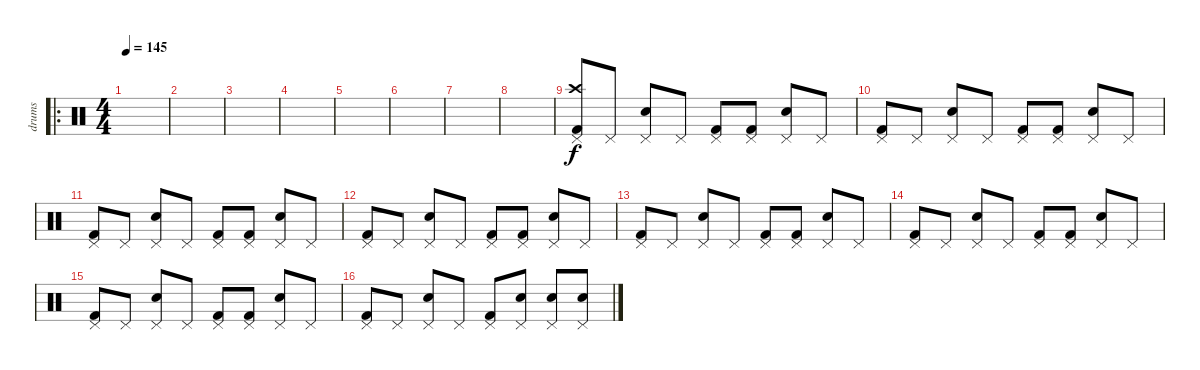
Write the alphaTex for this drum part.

\track ("drums" "drums") {instrument percussion}
\staff {score}
\articulation defaults
\ro
\ts (4 4)
\tempo 145
\clef neutral
\ks c
|
|
|
|
|
|
|
|
("Kick (hit) 2" "Crash high (hit)" "Pedal Hi-Hat (hit)").8 "Pedal Hi-Hat (hit)".8 ("Snare (hit) 2" "Pedal Hi-Hat (hit)").8 "Pedal Hi-Hat (hit)".8 ("Kick (hit) 2" "Pedal Hi-Hat (hit)").8 ("Kick (hit) 2" "Pedal Hi-Hat (hit)").8 ("Snare (hit) 2" "Pedal Hi-Hat (hit)").8 "Pedal Hi-Hat (hit)".8 |
("Kick (hit) 2" "Pedal Hi-Hat (hit)").8 "Pedal Hi-Hat (hit)".8 ("Snare (hit) 2" "Pedal Hi-Hat (hit)").8 "Pedal Hi-Hat (hit)".8 ("Kick (hit) 2" "Pedal Hi-Hat (hit)").8 ("Kick (hit) 2" "Pedal Hi-Hat (hit)").8 ("Snare (hit) 2" "Pedal Hi-Hat (hit)").8 "Pedal Hi-Hat (hit)".8 |
("Kick (hit) 2" "Pedal Hi-Hat (hit)").8 "Pedal Hi-Hat (hit)".8 ("Snare (hit) 2" "Pedal Hi-Hat (hit)").8 "Pedal Hi-Hat (hit)".8 ("Kick (hit) 2" "Pedal Hi-Hat (hit)").8 ("Kick (hit) 2" "Pedal Hi-Hat (hit)").8 ("Snare (hit) 2" "Pedal Hi-Hat (hit)").8 "Pedal Hi-Hat (hit)".8 |
("Kick (hit) 2" "Pedal Hi-Hat (hit)").8 "Pedal Hi-Hat (hit)".8 ("Snare (hit) 2" "Pedal Hi-Hat (hit)").8 "Pedal Hi-Hat (hit)".8 ("Kick (hit) 2" "Pedal Hi-Hat (hit)").8 ("Kick (hit) 2" "Pedal Hi-Hat (hit)").8 ("Snare (hit) 2" "Pedal Hi-Hat (hit)").8 "Pedal Hi-Hat (hit)".8 |
("Kick (hit) 2" "Pedal Hi-Hat (hit)").8 "Pedal Hi-Hat (hit)".8 ("Snare (hit) 2" "Pedal Hi-Hat (hit)").8 "Pedal Hi-Hat (hit)".8 ("Kick (hit) 2" "Pedal Hi-Hat (hit)").8 ("Kick (hit) 2" "Pedal Hi-Hat (hit)").8 ("Snare (hit) 2" "Pedal Hi-Hat (hit)").8 "Pedal Hi-Hat (hit)".8 |
("Kick (hit) 2" "Pedal Hi-Hat (hit)").8 "Pedal Hi-Hat (hit)".8 ("Snare (hit) 2" "Pedal Hi-Hat (hit)").8 "Pedal Hi-Hat (hit)".8 ("Kick (hit) 2" "Pedal Hi-Hat (hit)").8 ("Kick (hit) 2" "Pedal Hi-Hat (hit)").8 ("Snare (hit) 2" "Pedal Hi-Hat (hit)").8 "Pedal Hi-Hat (hit)".8 |
("Kick (hit) 2" "Pedal Hi-Hat (hit)").8 "Pedal Hi-Hat (hit)".8 ("Snare (hit) 2" "Pedal Hi-Hat (hit)").8 "Pedal Hi-Hat (hit)".8 ("Kick (hit) 2" "Pedal Hi-Hat (hit)").8 ("Kick (hit) 2" "Pedal Hi-Hat (hit)").8 ("Snare (hit) 2" "Pedal Hi-Hat (hit)").8 "Pedal Hi-Hat (hit)".8 |
("Kick (hit) 2" "Pedal Hi-Hat (hit)").8 "Pedal Hi-Hat (hit)".8 ("Snare (hit) 2" "Pedal Hi-Hat (hit)").8 "Pedal Hi-Hat (hit)".8 ("Kick (hit) 2" "Pedal Hi-Hat (hit)").8 ("Snare (hit) 2" "Pedal Hi-Hat (hit)").8 ("Snare (hit) 2" "Pedal Hi-Hat (hit)").8 ("Snare (hit) 2" "Pedal Hi-Hat (hit)").8
